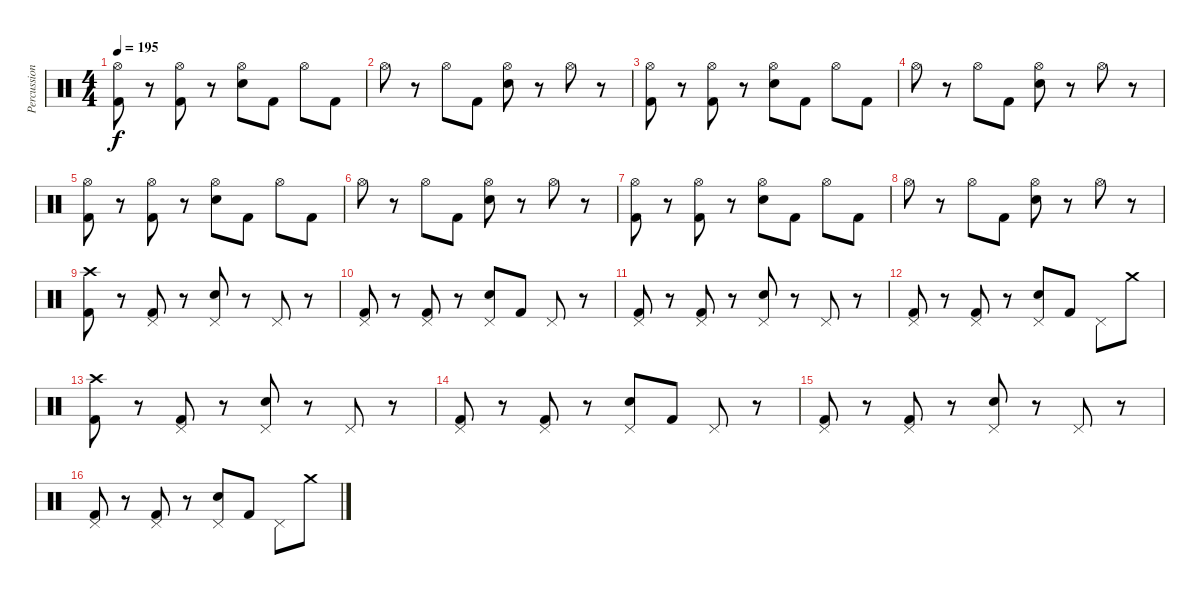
\track ("Percussion" "Percussion") {instrument percussion}
\staff {score}
\articulation defaults
\ts (4 4)
\tempo 195
\clef neutral
\ks c
("Hi-Hat (open)" "Kick (hit) 2").8{dy f} r.8 ("Hi-Hat (open)" "Kick (hit) 2").8 r.8 ("Hi-Hat (open)" "Electric Snare (hit)").8 "Kick (hit) 2".8 "Hi-Hat (open)".8 "Kick (hit) 2".8 |
"Hi-Hat (open)".8 r.8 "Hi-Hat (open)".8 "Kick (hit) 2".8 ("Hi-Hat (open)" "Electric Snare (hit)").8 r.8 "Hi-Hat (open)".8 r.8 |
("Hi-Hat (open)" "Kick (hit) 2").8 r.8 ("Hi-Hat (open)" "Kick (hit) 2").8 r.8 ("Hi-Hat (open)" "Electric Snare (hit)").8 "Kick (hit) 2".8 "Hi-Hat (open)".8 "Kick (hit) 2".8 |
"Hi-Hat (open)".8 r.8 "Hi-Hat (open)".8 "Kick (hit) 2".8 ("Hi-Hat (open)" "Electric Snare (hit)").8 r.8 "Hi-Hat (open)".8 r.8 |
("Hi-Hat (open)" "Kick (hit) 2").8 r.8 ("Hi-Hat (open)" "Kick (hit) 2").8 r.8 ("Hi-Hat (open)" "Electric Snare (hit)").8 "Kick (hit) 2".8 "Hi-Hat (open)".8 "Kick (hit) 2".8 |
"Hi-Hat (open)".8 r.8 "Hi-Hat (open)".8 "Kick (hit) 2".8 ("Hi-Hat (open)" "Electric Snare (hit)").8 r.8 "Hi-Hat (open)".8 r.8 |
("Hi-Hat (open)" "Kick (hit) 2").8 r.8 ("Hi-Hat (open)" "Kick (hit) 2").8 r.8 ("Hi-Hat (open)" "Electric Snare (hit)").8 "Kick (hit) 2".8 "Hi-Hat (open)".8 "Kick (hit) 2".8 |
"Hi-Hat (open)".8 r.8 "Hi-Hat (open)".8 "Kick (hit) 2".8 ("Hi-Hat (open)" "Electric Snare (hit)").8 r.8 "Hi-Hat (open)".8 r.8 |
("Crash high (hit)" "Kick (hit) 2").8 r.8 ("Pedal Hi-Hat (hit)" "Kick (hit) 2").8 r.8 ("Pedal Hi-Hat (hit)" "Electric Snare (hit)").8 r.8 "Pedal Hi-Hat (hit)".8 r.8 |
("Pedal Hi-Hat (hit)" "Kick (hit) 2").8 r.8 ("Pedal Hi-Hat (hit)" "Kick (hit) 2").8 r.8 ("Pedal Hi-Hat (hit)" "Electric Snare (hit)").8 "Kick (hit) 2".8 "Pedal Hi-Hat (hit)".8 r.8 |
("Pedal Hi-Hat (hit)" "Kick (hit) 2").8 r.8 ("Pedal Hi-Hat (hit)" "Kick (hit) 2").8 r.8 ("Pedal Hi-Hat (hit)" "Electric Snare (hit)").8 r.8 "Pedal Hi-Hat (hit)".8 r.8 |
("Pedal Hi-Hat (hit)" "Kick (hit) 2").8 r.8 ("Pedal Hi-Hat (hit)" "Kick (hit) 2").8 r.8 ("Pedal Hi-Hat (hit)" "Electric Snare (hit)").8 "Kick (hit) 2".8 "Pedal Hi-Hat (hit)".8 "Crash medium (hit)".8 |
("Crash high (hit)" "Kick (hit) 2").8 r.8 ("Pedal Hi-Hat (hit)" "Kick (hit) 2").8 r.8 ("Pedal Hi-Hat (hit)" "Electric Snare (hit)").8 r.8 "Pedal Hi-Hat (hit)".8 r.8 |
("Pedal Hi-Hat (hit)" "Kick (hit) 2").8 r.8 ("Pedal Hi-Hat (hit)" "Kick (hit) 2").8 r.8 ("Pedal Hi-Hat (hit)" "Electric Snare (hit)").8 "Kick (hit) 2".8 "Pedal Hi-Hat (hit)".8 r.8 |
("Pedal Hi-Hat (hit)" "Kick (hit) 2").8 r.8 ("Pedal Hi-Hat (hit)" "Kick (hit) 2").8 r.8 ("Pedal Hi-Hat (hit)" "Electric Snare (hit)").8 r.8 "Pedal Hi-Hat (hit)".8 r.8 |
("Pedal Hi-Hat (hit)" "Kick (hit) 2").8 r.8 ("Pedal Hi-Hat (hit)" "Kick (hit) 2").8 r.8 ("Pedal Hi-Hat (hit)" "Electric Snare (hit)").8 "Kick (hit) 2".8 "Pedal Hi-Hat (hit)".8 "Crash medium (hit)".8
